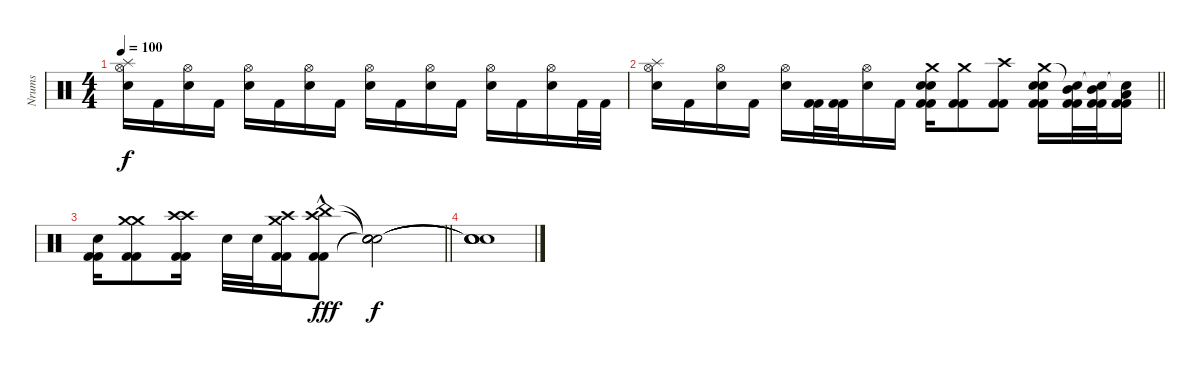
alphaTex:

\track ("Nrums" "Nrums") {instrument percussion}
\staff {score}
\articulation defaults
\ts (4 4)
\tempo 100
\clef neutral
\ks c
("Splash (hit)" "Hi-Hat (open)" "Electric Snare (hit)").16{dy f} "Kick (hit) 2".16 ("Hi-Hat (open)" "Electric Snare (hit)").16 "Kick (hit) 2".16 ("Hi-Hat (open)" "Electric Snare (hit)").16 "Kick (hit) 2".16 ("Hi-Hat (open)" "Electric Snare (hit)").16 "Kick (hit) 2".16 ("Hi-Hat (open)" "Electric Snare (hit)").16 "Kick (hit) 2".16 ("Hi-Hat (open)" "Electric Snare (hit)").16 "Kick (hit) 2".16 ("Hi-Hat (open)" "Electric Snare (hit)").16 "Kick (hit) 2".16 ("Hi-Hat (open)" "Electric Snare (hit)").16 "Kick (hit) 2".32 "Kick (hit) 2".32 |
\barLineRight lightlight
("Splash (hit)" "Hi-Hat (open)" "Electric Snare (hit)").16 "Kick (hit) 2".16 ("Hi-Hat (open)" "Electric Snare (hit)").16 "Kick (hit) 2".16 ("Hi-Hat (open)" "Electric Snare (hit)").16 ("Kick (hit) 2" "Kick (hit) 2").32 ("Kick (hit) 2" "Kick (hit) 2").32 ("Hi-Hat (open)" "Electric Snare (hit)").16 "Kick (hit) 2".16 ("Crash medium (hit)" "Electric Snare (hit)" "Electric Snare (hit)" "Kick (hit) 2" "Kick (hit) 2").16 ("Crash medium (hit)" "Kick (hit) 2" "Kick (hit) 2").8 ("Crash high (hit)" "Kick (hit) 2" "Kick (hit) 2").8 ("Crash medium (hit)" "Electric Snare (hit)" "Electric Snare (hit)" "Kick (hit) 2" "Kick (hit) 2").16 ("Snare (hit)"{t} "Mid Tom (hit)" "Kick (hit) 2" "Kick (hit) 2").32 ("Snare (hit)"{t} "Mid Tom (hit)" "Kick (hit) 2" "Kick (hit) 2").32 ("Snare (hit)"{t} "Low Tom (hit)" "Kick (hit) 2" "Kick (hit) 2").16 |
\barLineRight lightlight
("Electric Snare (hit)" "Kick (hit) 2" "Kick (hit) 2").16 ("Crash medium (hit)" "Crash medium (hit)" "Kick (hit) 2" "Kick (hit) 2").8 ("Crash high (hit)" "Crash high (hit)" "Kick (hit) 2" "Kick (hit) 2").16 "Electric Snare (hit)".32 "Electric Snare (hit)".32 ("Crash medium (hit)" "Crash high (hit)" "Kick (hit) 2" "Kick (hit) 2").16 ("China (hit)"{hac} "Crash high (hit)" "Kick (hit) 2" "Kick (hit) 2").8{dy fff} ("Snare (hit)"{t} "Snare (hit)"{t} "Snare (hit)"{t} "Snare (hit)"{t}).2{dy f} |
("Snare (hit)"{t} "Snare (hit)"{t} "Snare (hit)"{t} "Snare (hit)"{t}).1
